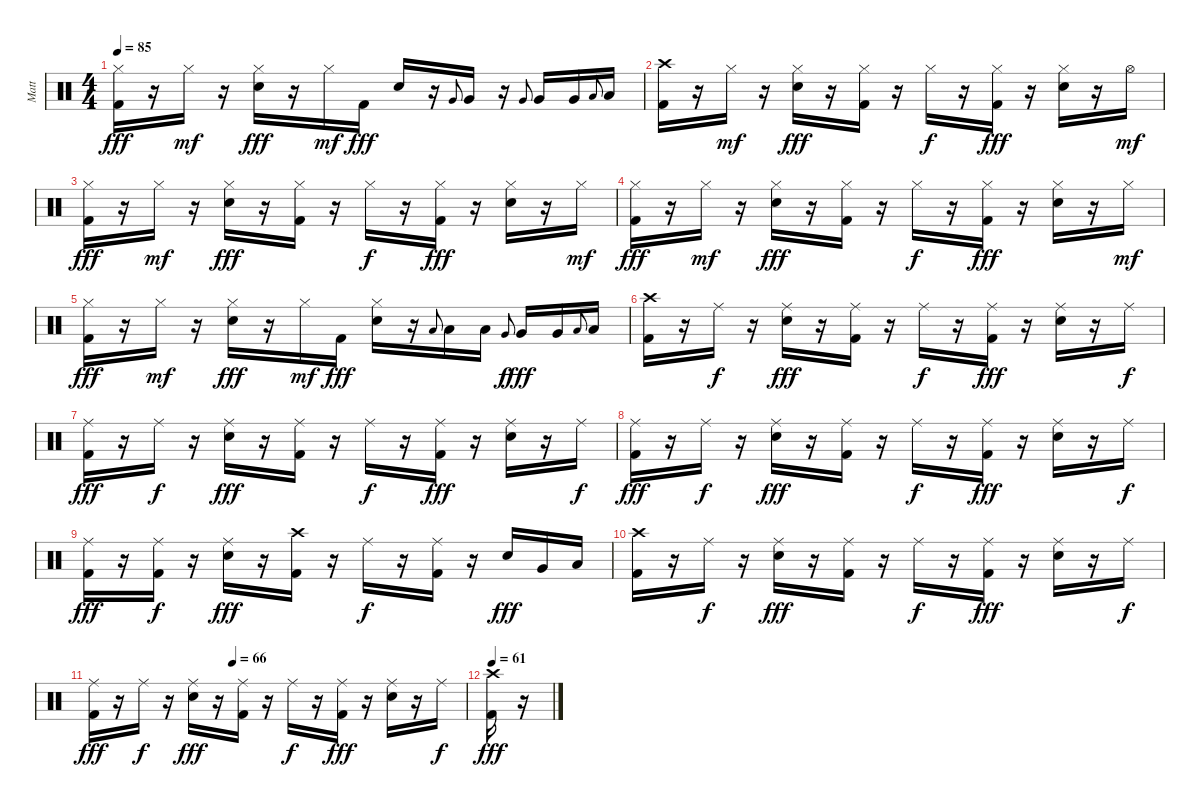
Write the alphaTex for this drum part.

\track ("Matt" "Matt") {instrument percussion}
\staff {score}
\articulation defaults
\ts (4 4)
\tempo 85
\clef neutral
\ks c
("Hi-Hat (closed)" "Kick (hit) 2").16{dy fff} r.16 "Hi-Hat (closed)".16{dy mf} r.16 ("Hi-Hat (closed)" "Electric Snare (hit)").16{dy fff} r.16 "Hi-Hat (closed)".16{dy mf} "Kick (hit) 2".16{dy fff} "Electric Snare (hit)".16 r.16 "Very Low Tom (hit)".8{gr onbeat} "Very Low Tom (hit)".16 r.16 "Very Low Tom (hit)".8{gr onbeat} "Very Low Tom (hit)".16 "Very Low Tom (hit)".16 "Low Floor Tom (hit)".8{gr onbeat} "Low Floor Tom (hit)".16 |
("Crash high (hit)" "Kick (hit) 2").16 r.16 "Hi-Hat (closed)".16{dy mf} r.16 ("Hi-Hat (closed)" "Electric Snare (hit)").16{dy fff} r.16 ("Hi-Hat (closed)" "Kick (hit) 2").16 r.16 "Hi-Hat (closed)".16{dy f} r.16 ("Hi-Hat (closed)" "Kick (hit) 2").16{dy fff} r.16 ("Hi-Hat (closed)" "Electric Snare (hit)").16 r.16 "Hi-Hat (open)".16{dy mf} |
("Hi-Hat (closed)" "Kick (hit) 2").16{dy fff} r.16 "Hi-Hat (closed)".16{dy mf} r.16 ("Hi-Hat (closed)" "Electric Snare (hit)").16{dy fff} r.16 ("Hi-Hat (closed)" "Kick (hit) 2").16 r.16 "Hi-Hat (closed)".16{dy f} r.16 ("Hi-Hat (closed)" "Kick (hit) 2").16{dy fff} r.16 ("Hi-Hat (closed)" "Electric Snare (hit)").16 r.16 "Hi-Hat (closed)".16{dy mf} |
("Hi-Hat (closed)" "Kick (hit) 2").16{dy fff} r.16 "Hi-Hat (closed)".16{dy mf} r.16 ("Hi-Hat (closed)" "Electric Snare (hit)").16{dy fff} r.16 ("Hi-Hat (closed)" "Kick (hit) 2").16 r.16 "Hi-Hat (closed)".16{dy f} r.16 ("Hi-Hat (closed)" "Kick (hit) 2").16{dy fff} r.16 ("Hi-Hat (closed)" "Electric Snare (hit)").16 r.16 "Hi-Hat (closed)".16{dy mf} |
("Hi-Hat (closed)" "Kick (hit) 2").16{dy fff} r.16 "Hi-Hat (closed)".16{dy mf} r.16 ("Hi-Hat (closed)" "Electric Snare (hit)").16{dy fff} r.16 "Hi-Hat (closed)".16{dy mf} "Kick (hit) 2".16{dy fff} ("Hi-Hat (closed)" "Electric Snare (hit)").16 r.16 "Low Tom (hit)".8{gr onbeat} "Low Tom (hit)".16 "Low Tom (hit)".16 "Very Low Tom (hit)".8{gr onbeat dy f} "Very Low Tom (hit)".16{dy fff} "Very Low Tom (hit)".16 "Low Floor Tom (hit)".8{gr onbeat} "Low Floor Tom (hit)".16 |
("Crash high (hit)" "Kick (hit) 2").16 r.16 "Ride (middle)".16{dy f} r.16 ("Ride (middle)" "Electric Snare (hit)").16{dy fff} r.16 ("Ride (middle)" "Kick (hit) 2").16 r.16 "Ride (middle)".16{dy f} r.16 ("Ride (middle)" "Kick (hit) 2").16{dy fff} r.16 ("Ride (middle)" "Electric Snare (hit)").16 r.16 "Ride (middle)".16{dy f} |
("Ride (middle)" "Kick (hit) 2").16{dy fff} r.16 "Ride (middle)".16{dy f} r.16 ("Ride (middle)" "Electric Snare (hit)").16{dy fff} r.16 ("Ride (middle)" "Kick (hit) 2").16 r.16 "Ride (middle)".16{dy f} r.16 ("Ride (middle)" "Kick (hit) 2").16{dy fff} r.16 ("Ride (middle)" "Electric Snare (hit)").16 r.16 "Ride (middle)".16{dy f} |
("Ride (middle)" "Kick (hit) 2").16{dy fff} r.16 "Ride (middle)".16{dy f} r.16 ("Ride (middle)" "Electric Snare (hit)").16{dy fff} r.16 ("Ride (middle)" "Kick (hit) 2").16 r.16 "Ride (middle)".16{dy f} r.16 ("Ride (middle)" "Kick (hit) 2").16{dy fff} r.16 ("Ride (middle)" "Electric Snare (hit)").16 r.16 "Ride (middle)".16{dy f} |
("Ride (middle)" "Kick (hit) 2").16{dy fff} r.16 ("Ride (middle)" "Kick (hit) 2").16{dy f} r.16 ("Ride (middle)" "Electric Snare (hit)").16{dy fff} r.16 ("Crash high (hit)" "Kick (hit) 2").16 r.16 "Ride (middle)".16{dy f} r.16 ("Ride (middle)" "Kick (hit) 2").16 r.16 "Electric Snare (hit)".16{dy fff} "Very Low Tom (hit)".16 "Low Floor Tom (hit)".16 |
("Crash high (hit)" "Kick (hit) 2").16 r.16 "Ride (middle)".16{dy f} r.16 ("Ride (middle)" "Electric Snare (hit)").16{dy fff} r.16 ("Ride (middle)" "Kick (hit) 2").16 r.16 "Ride (middle)".16{dy f} r.16 ("Ride (middle)" "Kick (hit) 2").16{dy fff} r.16 ("Ride (middle)" "Electric Snare (hit)").16 r.16 "Ride (middle)".16{dy f} |
\tempo (66 0.375)
("Ride (middle)" "Kick (hit) 2").16{dy fff} r.16 "Ride (middle)".16{dy f} r.16 ("Ride (middle)" "Electric Snare (hit)").16{dy fff} r.16 ("Ride (middle)" "Kick (hit) 2").16 r.16 "Ride (middle)".16{dy f} r.16 ("Ride (middle)" "Kick (hit) 2").16{dy fff} r.16 ("Ride (middle)" "Electric Snare (hit)").16 r.16 "Ride (middle)".16{dy f} |
\tempo 61
("Crash high (hit)" "Kick (hit) 2").16{dy fff} r.16
